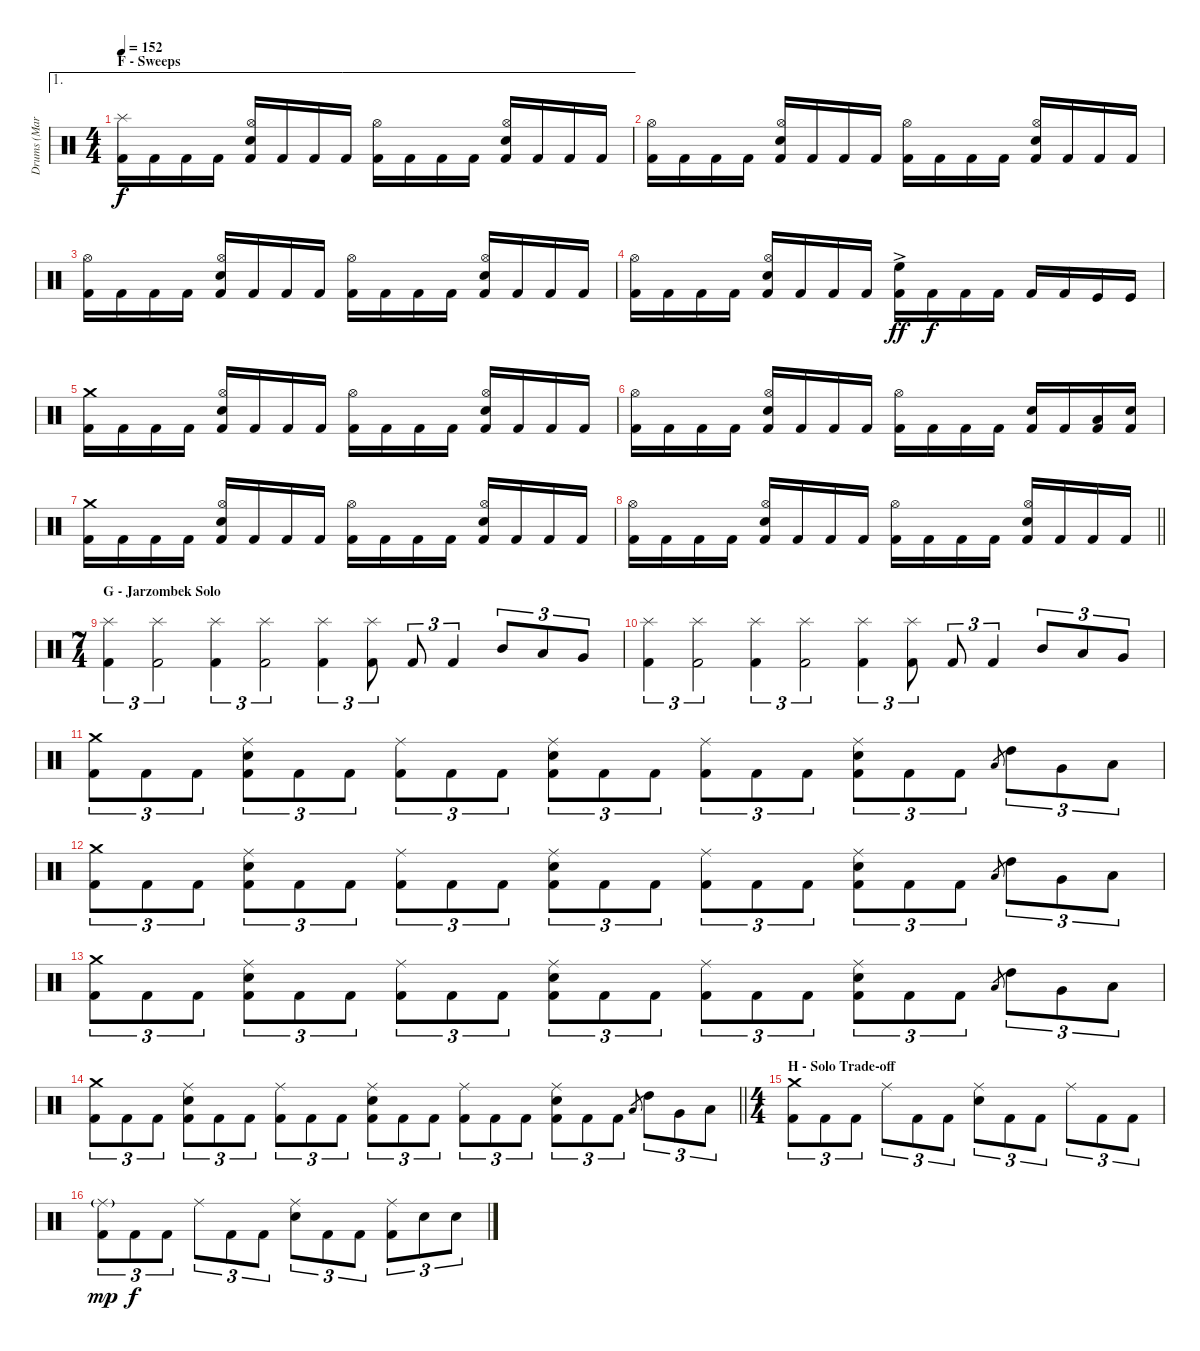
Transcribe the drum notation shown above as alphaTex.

\track ("Drums (Mark Arrington)" "Drums (Mar") {instrument percussion}
\staff {score}
\articulation defaults
\ae 1
\ts (4 4)
\section ("" "F - Sweeps")
\tempo 152
\clef neutral
\ks aminor
("Splash (hit)" "Kick (hit) 2").16{dy f} "Kick (hit) 2".16 "Kick (hit) 2".16 "Kick (hit) 2".16 ("Hi-Hat (open)" "Electric Snare (hit)" "Kick (hit) 2").16 "Kick (hit) 2".16 "Kick (hit) 2".16 "Kick (hit) 2".16 ("Hi-Hat (open)" "Kick (hit) 2").16 "Kick (hit) 2".16 "Kick (hit) 2".16 "Kick (hit) 2".16 ("Hi-Hat (open)" "Electric Snare (hit)" "Kick (hit) 2").16 "Kick (hit) 2".16 "Kick (hit) 2".16 "Kick (hit) 2".16 |
("Hi-Hat (open)" "Kick (hit) 2").16 "Kick (hit) 2".16 "Kick (hit) 2".16 "Kick (hit) 2".16 ("Hi-Hat (open)" "Electric Snare (hit)" "Kick (hit) 2").16 "Kick (hit) 2".16 "Kick (hit) 2".16 "Kick (hit) 2".16 ("Hi-Hat (open)" "Kick (hit) 2").16 "Kick (hit) 2".16 "Kick (hit) 2".16 "Kick (hit) 2".16 ("Hi-Hat (open)" "Electric Snare (hit)" "Kick (hit) 2").16 "Kick (hit) 2".16 "Kick (hit) 2".16 "Kick (hit) 2".16 |
("Hi-Hat (open)" "Kick (hit) 2").16 "Kick (hit) 2".16 "Kick (hit) 2".16 "Kick (hit) 2".16 ("Hi-Hat (open)" "Electric Snare (hit)" "Kick (hit) 2").16 "Kick (hit) 2".16 "Kick (hit) 2".16 "Kick (hit) 2".16 ("Hi-Hat (open)" "Kick (hit) 2").16 "Kick (hit) 2".16 "Kick (hit) 2".16 "Kick (hit) 2".16 ("Hi-Hat (open)" "Electric Snare (hit)" "Kick (hit) 2").16 "Kick (hit) 2".16 "Kick (hit) 2".16 "Kick (hit) 2".16 |
("Hi-Hat (open)" "Kick (hit) 2").16 "Kick (hit) 2".16 "Kick (hit) 2".16 "Kick (hit) 2".16 ("Hi-Hat (open)" "Electric Snare (hit)" "Kick (hit) 2").16 "Kick (hit) 2".16 "Kick (hit) 2".16 "Kick (hit) 2".16 ("High Floor Tom (hit)"{ac} "Kick (hit) 2").16{dy ff} "Kick (hit) 2".16{dy f} "Kick (hit) 2".16 "Kick (hit) 2".16 "Kick (hit) 2".16 "Kick (hit) 2".16 "Kick (hit)".16 "Kick (hit)".16 |
("Crash medium (hit)" "Kick (hit) 2").16 "Kick (hit) 2".16 "Kick (hit) 2".16 "Kick (hit) 2".16 ("Hi-Hat (open)" "Electric Snare (hit)" "Kick (hit) 2").16 "Kick (hit) 2".16 "Kick (hit) 2".16 "Kick (hit) 2".16 ("Hi-Hat (open)" "Kick (hit) 2").16 "Kick (hit) 2".16 "Kick (hit) 2".16 "Kick (hit) 2".16 ("Hi-Hat (open)" "Electric Snare (hit)" "Kick (hit) 2").16 "Kick (hit) 2".16 "Kick (hit) 2".16 "Kick (hit) 2".16 |
("Hi-Hat (open)" "Kick (hit) 2").16 "Kick (hit) 2".16 "Kick (hit) 2".16 "Kick (hit) 2".16 ("Hi-Hat (open)" "Electric Snare (hit)" "Kick (hit) 2").16 "Kick (hit) 2".16 "Kick (hit) 2".16 "Kick (hit) 2".16 ("Hi-Hat (open)" "Kick (hit) 2").16 "Kick (hit) 2".16 "Kick (hit) 2".16 "Kick (hit) 2".16 ("Electric Snare (hit)" "Kick (hit) 2").16 "Kick (hit) 2".16 ("Low Floor Tom (hit)" "Kick (hit) 2").16 ("Electric Snare (hit)" "Kick (hit) 2").16 |
("Crash medium (hit)" "Kick (hit) 2").16 "Kick (hit) 2".16 "Kick (hit) 2".16 "Kick (hit) 2".16 ("Hi-Hat (open)" "Electric Snare (hit)" "Kick (hit) 2").16 "Kick (hit) 2".16 "Kick (hit) 2".16 "Kick (hit) 2".16 ("Hi-Hat (open)" "Kick (hit) 2").16 "Kick (hit) 2".16 "Kick (hit) 2".16 "Kick (hit) 2".16 ("Hi-Hat (open)" "Electric Snare (hit)" "Kick (hit) 2").16 "Kick (hit) 2".16 "Kick (hit) 2".16 "Kick (hit) 2".16 |
\barLineRight lightlight
("Hi-Hat (open)" "Kick (hit) 2").16 "Kick (hit) 2".16 "Kick (hit) 2".16 "Kick (hit) 2".16 ("Hi-Hat (open)" "Electric Snare (hit)" "Kick (hit) 2").16 "Kick (hit) 2".16 "Kick (hit) 2".16 "Kick (hit) 2".16 ("Hi-Hat (open)" "Kick (hit) 2").16 "Kick (hit) 2".16 "Kick (hit) 2".16 "Kick (hit) 2".16 ("Hi-Hat (open)" "Electric Snare (hit)" "Kick (hit) 2").16 "Kick (hit) 2".16 "Kick (hit) 2".16 "Kick (hit) 2".16 |
\ts (7 4)
\section ("" "G - Jarzombek Solo")
("Splash (hit)" "Kick (hit) 2").4{tu (3 2)} ("Splash (hit)" "Kick (hit) 2").2{tu (3 2)} ("Splash (hit)" "Kick (hit) 2").4{tu (3 2)} ("Splash (hit)" "Kick (hit) 2").2{tu (3 2)} ("Splash (hit)" "Kick (hit) 2").4{tu (3 2)} ("Splash (hit)" "Kick (hit) 2").8{tu (3 2)} "Kick (hit) 2".8{tu (3 2)} "Kick (hit) 2".4{tu (3 2)} "Mid Tom (hit)".8{tu (3 2)} "Low Tom (hit)".8{tu (3 2)} "Very Low Tom (hit)".8{tu (3 2)} |
("Splash (hit)" "Kick (hit) 2").4{tu (3 2)} ("Splash (hit)" "Kick (hit) 2").2{tu (3 2)} ("Splash (hit)" "Kick (hit) 2").4{tu (3 2)} ("Splash (hit)" "Kick (hit) 2").2{tu (3 2)} ("Splash (hit)" "Kick (hit) 2").4{tu (3 2)} ("Splash (hit)" "Kick (hit) 2").8{tu (3 2)} "Kick (hit) 2".8{tu (3 2)} "Kick (hit) 2".4{tu (3 2)} "Mid Tom (hit)".8{tu (3 2)} "Low Tom (hit)".8{tu (3 2)} "Very Low Tom (hit)".8{tu (3 2)} |
("Crash medium (hit)" "Kick (hit) 2").8{tu (3 2)} "Kick (hit) 2".8{tu (3 2)} "Kick (hit) 2".8{tu (3 2)} ("Ride (middle)" "Electric Snare (hit)" "Kick (hit) 2").8{tu (3 2)} "Kick (hit) 2".8{tu (3 2)} "Kick (hit) 2".8{tu (3 2)} ("Ride (middle)" "Kick (hit) 2").8{tu (3 2)} "Kick (hit) 2".8{tu (3 2)} "Kick (hit) 2".8{tu (3 2)} ("Ride (middle)" "Electric Snare (hit)" "Kick (hit) 2").8{tu (3 2)} "Kick (hit) 2".8{tu (3 2)} "Kick (hit) 2".8{tu (3 2)} ("Ride (middle)" "Kick (hit) 2").8{tu (3 2)} "Kick (hit) 2".8{tu (3 2)} "Kick (hit) 2".8{tu (3 2)} ("Ride (middle)" "Electric Snare (hit)" "Kick (hit) 2").8{tu (3 2)} "Kick (hit) 2".8{tu (3 2)} "Kick (hit) 2".8{tu (3 2)} "Low Tom (hit)".8{gr} "High Tom (hit)".8{tu (3 2)} "Very Low Tom (hit)".8{tu (3 2)} "Low Floor Tom (hit)".8{tu (3 2)} |
("Crash medium (hit)" "Kick (hit) 2").8{tu (3 2)} "Kick (hit) 2".8{tu (3 2)} "Kick (hit) 2".8{tu (3 2)} ("Ride (middle)" "Electric Snare (hit)" "Kick (hit) 2").8{tu (3 2)} "Kick (hit) 2".8{tu (3 2)} "Kick (hit) 2".8{tu (3 2)} ("Ride (middle)" "Kick (hit) 2").8{tu (3 2)} "Kick (hit) 2".8{tu (3 2)} "Kick (hit) 2".8{tu (3 2)} ("Ride (middle)" "Electric Snare (hit)" "Kick (hit) 2").8{tu (3 2)} "Kick (hit) 2".8{tu (3 2)} "Kick (hit) 2".8{tu (3 2)} ("Ride (middle)" "Kick (hit) 2").8{tu (3 2)} "Kick (hit) 2".8{tu (3 2)} "Kick (hit) 2".8{tu (3 2)} ("Ride (middle)" "Electric Snare (hit)" "Kick (hit) 2").8{tu (3 2)} "Kick (hit) 2".8{tu (3 2)} "Kick (hit) 2".8{tu (3 2)} "Low Tom (hit)".8{gr} "High Tom (hit)".8{tu (3 2)} "Very Low Tom (hit)".8{tu (3 2)} "Low Floor Tom (hit)".8{tu (3 2)} |
("Crash medium (hit)" "Kick (hit) 2").8{tu (3 2)} "Kick (hit) 2".8{tu (3 2)} "Kick (hit) 2".8{tu (3 2)} ("Ride (middle)" "Electric Snare (hit)" "Kick (hit) 2").8{tu (3 2)} "Kick (hit) 2".8{tu (3 2)} "Kick (hit) 2".8{tu (3 2)} ("Ride (middle)" "Kick (hit) 2").8{tu (3 2)} "Kick (hit) 2".8{tu (3 2)} "Kick (hit) 2".8{tu (3 2)} ("Ride (middle)" "Electric Snare (hit)" "Kick (hit) 2").8{tu (3 2)} "Kick (hit) 2".8{tu (3 2)} "Kick (hit) 2".8{tu (3 2)} ("Ride (middle)" "Kick (hit) 2").8{tu (3 2)} "Kick (hit) 2".8{tu (3 2)} "Kick (hit) 2".8{tu (3 2)} ("Ride (middle)" "Electric Snare (hit)" "Kick (hit) 2").8{tu (3 2)} "Kick (hit) 2".8{tu (3 2)} "Kick (hit) 2".8{tu (3 2)} "Low Tom (hit)".8{gr} "High Tom (hit)".8{tu (3 2)} "Very Low Tom (hit)".8{tu (3 2)} "Low Floor Tom (hit)".8{tu (3 2)} |
\barLineRight lightlight
("Crash medium (hit)" "Kick (hit) 2").8{tu (3 2)} "Kick (hit) 2".8{tu (3 2)} "Kick (hit) 2".8{tu (3 2)} ("Ride (middle)" "Electric Snare (hit)" "Kick (hit) 2").8{tu (3 2)} "Kick (hit) 2".8{tu (3 2)} "Kick (hit) 2".8{tu (3 2)} ("Ride (middle)" "Kick (hit) 2").8{tu (3 2)} "Kick (hit) 2".8{tu (3 2)} "Kick (hit) 2".8{tu (3 2)} ("Ride (middle)" "Electric Snare (hit)" "Kick (hit) 2").8{tu (3 2)} "Kick (hit) 2".8{tu (3 2)} "Kick (hit) 2".8{tu (3 2)} ("Ride (middle)" "Kick (hit) 2").8{tu (3 2)} "Kick (hit) 2".8{tu (3 2)} "Kick (hit) 2".8{tu (3 2)} ("Ride (middle)" "Electric Snare (hit)" "Kick (hit) 2").8{tu (3 2)} "Kick (hit) 2".8{tu (3 2)} "Kick (hit) 2".8{tu (3 2)} "Low Tom (hit)".8{gr} "High Tom (hit)".8{tu (3 2)} "Very Low Tom (hit)".8{tu (3 2)} "Low Floor Tom (hit)".8{tu (3 2)} |
\ts (4 4)
\section ("" "H - Solo Trade-off")
("Crash medium (hit)" "Kick (hit) 2").8{tu (3 2)} "Kick (hit) 2".8{tu (3 2)} "Kick (hit) 2".8{tu (3 2)} "Ride (middle)".8{tu (3 2)} "Kick (hit) 2".8{tu (3 2)} "Kick (hit) 2".8{tu (3 2)} ("Ride (middle)" "Electric Snare (hit)").8{tu (3 2)} "Kick (hit) 2".8{tu (3 2)} "Kick (hit) 2".8{tu (3 2)} "Ride (middle)".8{tu (3 2)} "Kick (hit) 2".8{tu (3 2)} "Kick (hit) 2".8{tu (3 2)} |
("Ride (middle)"{g} "Kick (hit) 2").8{tu (3 2) dy mp} "Kick (hit) 2".8{tu (3 2) dy f} "Kick (hit) 2".8{tu (3 2)} "Ride (middle)".8{tu (3 2)} "Kick (hit) 2".8{tu (3 2)} "Kick (hit) 2".8{tu (3 2)} ("Ride (middle)" "Electric Snare (hit)").8{tu (3 2)} "Kick (hit) 2".8{tu (3 2)} "Kick (hit) 2".8{tu (3 2)} ("Ride (middle)" "Kick (hit) 2").8{tu (3 2)} "Electric Snare (hit)".8{tu (3 2)} "Electric Snare (hit)".8{tu (3 2)}
